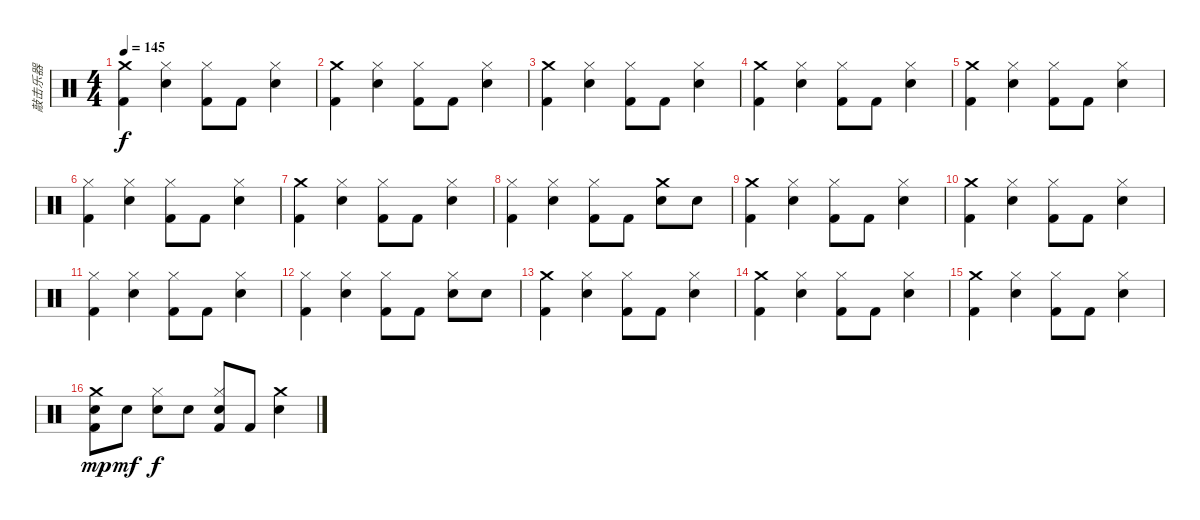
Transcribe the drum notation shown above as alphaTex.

\track ("敲击乐器" "敲击乐器") {instrument percussion}
\staff {score}
\articulation defaults
\ts (4 4)
\tempo 145
\clef neutral
\ks c
("Crash medium (hit)" "Kick (hit) 2").4{dy f} ("Hi-Hat (closed)" "Electric Snare (hit)").4 ("Hi-Hat (closed)" "Kick (hit) 2").8 "Kick (hit) 2".8 ("Hi-Hat (closed)" "Electric Snare (hit)").4 |
("Crash medium (hit)" "Kick (hit) 2").4 ("Hi-Hat (closed)" "Electric Snare (hit)").4 ("Hi-Hat (closed)" "Kick (hit) 2").8 "Kick (hit) 2".8 ("Hi-Hat (closed)" "Electric Snare (hit)").4 |
("Crash medium (hit)" "Kick (hit) 2").4 ("Hi-Hat (closed)" "Electric Snare (hit)").4 ("Hi-Hat (closed)" "Kick (hit) 2").8 "Kick (hit) 2".8 ("Hi-Hat (closed)" "Electric Snare (hit)").4 |
("Crash medium (hit)" "Kick (hit) 2").4 ("Hi-Hat (closed)" "Electric Snare (hit)").4 ("Hi-Hat (closed)" "Kick (hit) 2").8 "Kick (hit) 2".8 ("Hi-Hat (closed)" "Electric Snare (hit)").4 |
("Crash medium (hit)" "Kick (hit) 2").4 ("Hi-Hat (closed)" "Electric Snare (hit)").4 ("Hi-Hat (closed)" "Kick (hit) 2").8 "Kick (hit) 2".8 ("Hi-Hat (closed)" "Electric Snare (hit)").4 |
("Hi-Hat (closed)" "Kick (hit) 2").4 ("Hi-Hat (closed)" "Electric Snare (hit)").4 ("Hi-Hat (closed)" "Kick (hit) 2").8 "Kick (hit) 2".8 ("Hi-Hat (closed)" "Electric Snare (hit)").4 |
("Crash medium (hit)" "Kick (hit) 2").4 ("Hi-Hat (closed)" "Electric Snare (hit)").4 ("Hi-Hat (closed)" "Kick (hit) 2").8 "Kick (hit) 2".8 ("Hi-Hat (closed)" "Electric Snare (hit)").4 |
("Hi-Hat (closed)" "Kick (hit) 2").4 ("Hi-Hat (closed)" "Electric Snare (hit)").4 ("Hi-Hat (closed)" "Kick (hit) 2").8 "Kick (hit) 2".8 ("Crash medium (hit)" "Electric Snare (hit)").8 "Electric Snare (hit)".8 |
("Crash medium (hit)" "Kick (hit) 2").4 ("Hi-Hat (closed)" "Electric Snare (hit)").4 ("Hi-Hat (closed)" "Kick (hit) 2").8 "Kick (hit) 2".8 ("Hi-Hat (closed)" "Electric Snare (hit)").4 |
("Crash medium (hit)" "Kick (hit) 2").4 ("Hi-Hat (closed)" "Electric Snare (hit)").4 ("Hi-Hat (closed)" "Kick (hit) 2").8 "Kick (hit) 2".8 ("Hi-Hat (closed)" "Electric Snare (hit)").4 |
("Hi-Hat (closed)" "Kick (hit) 2").4 ("Hi-Hat (closed)" "Electric Snare (hit)").4 ("Hi-Hat (closed)" "Kick (hit) 2").8 "Kick (hit) 2".8 ("Hi-Hat (closed)" "Electric Snare (hit)").4 |
("Hi-Hat (closed)" "Kick (hit) 2").4 ("Hi-Hat (closed)" "Electric Snare (hit)").4 ("Hi-Hat (closed)" "Kick (hit) 2").8 "Kick (hit) 2".8 ("Hi-Hat (closed)" "Electric Snare (hit)").8 "Electric Snare (hit)".8 |
("Crash medium (hit)" "Kick (hit) 2").4 ("Hi-Hat (closed)" "Electric Snare (hit)").4 ("Hi-Hat (closed)" "Kick (hit) 2").8 "Kick (hit) 2".8 ("Hi-Hat (closed)" "Electric Snare (hit)").4 |
("Crash medium (hit)" "Kick (hit) 2").4 ("Hi-Hat (closed)" "Electric Snare (hit)").4 ("Hi-Hat (closed)" "Kick (hit) 2").8 "Kick (hit) 2".8 ("Hi-Hat (closed)" "Electric Snare (hit)").4 |
("Crash medium (hit)" "Kick (hit) 2").4 ("Hi-Hat (closed)" "Electric Snare (hit)").4 ("Hi-Hat (closed)" "Kick (hit) 2").8 "Kick (hit) 2".8 ("Hi-Hat (closed)" "Electric Snare (hit)").4 |
("Crash medium (hit)" "Electric Snare (hit)" "Kick (hit) 2").8{dy mp} "Electric Snare (hit)".8{dy mf} ("Hi-Hat (closed)" "Electric Snare (hit)").8{dy f} "Electric Snare (hit)".8 ("Hi-Hat (closed)" "Electric Snare (hit)" "Kick (hit) 2").8 "Kick (hit) 2".8 ("Crash medium (hit)" "Electric Snare (hit)").4
